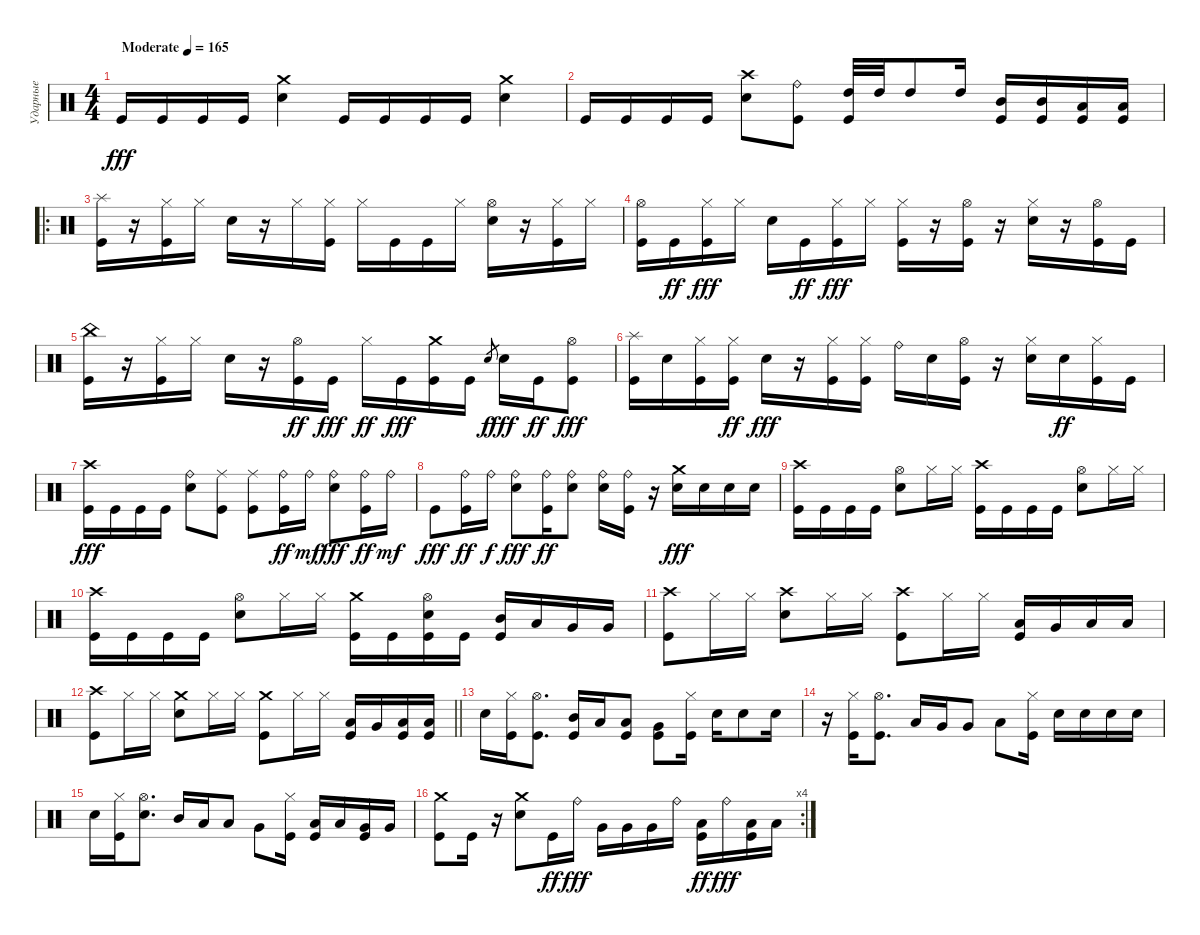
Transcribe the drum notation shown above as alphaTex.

\track ("Ударные" "Ударные") {instrument percussion}
\staff {score}
\articulation defaults
\ts (4 4)
\tempo (165 "Moderate")
\clef neutral
\ks c "Kick (hit)".16{dy fff} "Kick (hit)".16 "Kick (hit)".16 "Kick (hit)".16
("Crash medium (hit)" "Electric Snare (hit)").4 "Kick (hit)".16 "Kick (hit)".16 "Kick (hit)".16 "Kick (hit)".16 ("Crash medium (hit)" "Electric Snare (hit)").4 |
"Kick (hit)".16 "Kick (hit)".16 "Kick (hit)".16 "Kick (hit)".16 ("Crash high (hit)" "Electric Snare (hit)").8 ("Ride (bell)" "Kick (hit)").8 ("High Tom (hit)" "Kick (hit)").32 "High Tom (hit)".32 "High Tom (hit)".8 "High Tom (hit)".16 ("Mid Tom (hit)" "Kick (hit)").16 ("Mid Tom (hit)" "Kick (hit)").16 ("Low Tom (hit)" "Kick (hit)").16 ("Low Tom (hit)" "Kick (hit)").16 |
\ro
("Splash (hit)" "Kick (hit)").16 r.16 ("Hi-Hat (closed)" "Kick (hit)").16 "Hi-Hat (closed)".16 "Electric Snare (hit)".16 r.16 "Hi-Hat (closed)".16 ("Hi-Hat (closed)" "Kick (hit)").16 "Hi-Hat (closed)".16 "Kick (hit)".16 "Kick (hit)".16 "Hi-Hat (closed)".16 ("Hi-Hat (open)" "Electric Snare (hit)").16 r.16 ("Hi-Hat (closed)" "Kick (hit)").16 "Hi-Hat (closed)".16 |
("Hi-Hat (open)" "Kick (hit)").16 "Kick (hit)".16{dy ff} ("Hi-Hat (closed)" "Kick (hit)").16{dy fff} "Hi-Hat (closed)".16 "Electric Snare (hit)".16 "Kick (hit)".16{dy ff} ("Hi-Hat (closed)" "Kick (hit)").16{dy fff} "Hi-Hat (closed)".16 ("Hi-Hat (closed)" "Kick (hit)").16 r.16 ("Hi-Hat (open)" "Kick (hit)").16 r.16 ("Hi-Hat (closed)" "Electric Snare (hit)").16 r.16 ("Hi-Hat (open)" "Kick (hit)").16 "Kick (hit)".16 |
("China (hit)" "Kick (hit)").16 r.16 ("Hi-Hat (closed)" "Kick (hit)").16 "Hi-Hat (closed)".16 "Electric Snare (hit)".16 r.16 ("Hi-Hat (open)" "Kick (hit)").16{dy ff} "Kick (hit)".16{dy fff} "Hi-Hat (closed)".16{dy ff} "Kick (hit)".16{dy fff} ("Crash medium (hit)" "Kick (hit)").16 "Kick (hit)".16 "Electric Snare (hit)".8{gr dy f} "Electric Snare (hit)".16{dy fff} "Kick (hit)".16{dy ff} ("Hi-Hat (open)" "Kick (hit)").8{dy fff} |
("Splash (hit)" "Kick (hit)").16 "Electric Snare (hit)".16 ("Hi-Hat (closed)" "Kick (hit)").16 ("Hi-Hat (closed)" "Kick (hit)").16{dy ff} "Electric Snare (hit)".16{dy fff} r.16 ("Hi-Hat (closed)" "Kick (hit)").16 ("Hi-Hat (closed)" "Kick (hit)").16 "Ride (bell)".16 "Electric Snare (hit)".16 ("Hi-Hat (open)" "Kick (hit)").16 r.16 ("Hi-Hat (closed)" "Electric Snare (hit)").16 "Electric Snare (hit)".16{dy ff} ("Hi-Hat (closed)" "Kick (hit)").16 "Kick (hit)".16 |
("Crash high (hit)" "Kick (hit)").16{dy fff} "Kick (hit)".16 "Kick (hit)".16 "Kick (hit)".16 ("Ride (bell)" "Electric Snare (hit)").8 ("Ride (middle)" "Kick (hit)").8 ("Ride (middle)" "Kick (hit)").8 ("Ride (bell)" "Kick (hit)").16{dy ff} "Ride (bell)".16{dy mf} ("Ride (bell)" "Electric Snare (hit)").8{dy fff} ("Ride (bell)" "Kick (hit)").16{dy ff} "Ride (bell)".16{dy mf} |
"Kick (hit)".8{dy fff} ("Ride (bell)" "Kick (hit)").16{dy ff} "Ride (bell)".16{dy f} ("Ride (bell)" "Electric Snare (hit)").8{dy fff} ("Ride (bell)" "Kick (hit)").16{dy ff} ("Ride (bell)" "Electric Snare (hit)").8 ("Ride (bell)" "Electric Snare (hit)").16 ("Ride (bell)" "Kick (hit)").16 r.16 ("Crash medium (hit)" "Electric Snare (hit)").16{dy fff} "Electric Snare (hit)".16 "Electric Snare (hit)".16 "Electric Snare (hit)".16 |
("Crash high (hit)" "Kick (hit)").16 "Kick (hit)".16 "Kick (hit)".16 "Kick (hit)".16 ("Hi-Hat (open)" "Electric Snare (hit)").8 "Hi-Hat (closed)".16 "Hi-Hat (closed)".16 ("Crash high (hit)" "Kick (hit)").16 "Kick (hit)".16 "Kick (hit)".16 "Kick (hit)".16 ("Hi-Hat (open)" "Electric Snare (hit)").8 "Hi-Hat (closed)".16 "Hi-Hat (closed)".16 |
("Crash high (hit)" "Kick (hit)").16 "Kick (hit)".16 "Kick (hit)".16 "Kick (hit)".16 ("Hi-Hat (open)" "Electric Snare (hit)").8 "Hi-Hat (closed)".16 "Hi-Hat (closed)".16 ("Crash medium (hit)" "Kick (hit)").16 "Kick (hit)".16 ("Hi-Hat (open)" "Electric Snare (hit)" "Kick (hit)").16 "Kick (hit)".16 ("Mid Tom (hit)" "Kick (hit)").16 "Low Tom (hit)".16 "Very Low Tom (hit)".16 "Very Low Tom (hit)".16 |
("Crash high (hit)" "Kick (hit)").8 "Hi-Hat (closed)".16 "Hi-Hat (closed)".16 ("Crash high (hit)" "Electric Snare (hit)").8 "Hi-Hat (closed)".16 "Hi-Hat (closed)".16 ("Crash high (hit)" "Kick (hit)").8 "Hi-Hat (closed)".16 "Hi-Hat (closed)".16 ("Low Tom (hit)" "Kick (hit)").16 "Very Low Tom (hit)".16 "Low Floor Tom (hit)".16 "Low Floor Tom (hit)".16 |
\barLineRight lightlight
("Crash high (hit)" "Kick (hit)").8 "Hi-Hat (closed)".16 "Hi-Hat (closed)".16 ("Crash medium (hit)" "Electric Snare (hit)").8 "Hi-Hat (closed)".16 "Hi-Hat (closed)".16 ("Crash medium (hit)" "Kick (hit)").8 "Hi-Hat (closed)".16 "Hi-Hat (closed)".16 ("Low Floor Tom (hit)" "Kick (hit)").16 "Very Low Tom (hit)".16 ("Low Floor Tom (hit)" "Kick (hit)").16 ("Low Floor Tom (hit)" "Kick (hit)").16 |
"Electric Snare (hit)".16 ("Hi-Hat (closed)" "Kick (hit)").16 ("Hi-Hat (open)" "Kick (hit)").8{d} ("Mid Tom (hit)" "Kick (hit)").16 "Low Tom (hit)".16 ("Low Tom (hit)" "Kick (hit)").8 ("Very Low Tom (hit)" "Kick (hit)").8 ("Hi-Hat (closed)" "Kick (hit)").16 "Electric Snare (hit)".16 "Electric Snare (hit)".8 "Electric Snare (hit)".16 |
r.16 ("Hi-Hat (closed)" "Kick (hit)").16 ("Hi-Hat (open)" "Kick (hit)").8{d} "Low Tom (hit)".16 "Very Low Tom (hit)".16 "Very Low Tom (hit)".8 "Low Floor Tom (hit)".8 ("Hi-Hat (closed)" "Kick (hit)").16 "Electric Snare (hit)".16 "Electric Snare (hit)".16 "Electric Snare (hit)".16 "Electric Snare (hit)".16 |
"Electric Snare (hit)".16 ("Hi-Hat (closed)" "Kick (hit)").16 ("Hi-Hat (open)" "Electric Snare (hit)").8{d} "Mid Tom (hit)".16 "Low Tom (hit)".16 "Low Tom (hit)".8 "Very Low Tom (hit)".8 ("Hi-Hat (closed)" "Kick (hit)").16 ("Low Tom (hit)" "Kick (hit)").16 "Low Tom (hit)".16 ("Very Low Tom (hit)" "Kick (hit)").16 "Very Low Tom (hit)".16 |
\rc 4
("Crash medium (hit)" "Kick (hit)").8 "Kick (hit)".16 r.16 ("Crash medium (hit)" "Electric Snare (hit)").8 "Kick (hit)".16{dy ff} "Ride (bell)".16{dy fff} "Very Low Tom (hit)".16 "Very Low Tom (hit)".16 "Very Low Tom (hit)".16 "Ride (bell)".16 ("Low Floor Tom (hit)" "Kick (hit)").16{dy ff} "Ride (bell)".16{dy fff} ("Low Floor Tom (hit)" "Kick (hit)").16 "Low Floor Tom (hit)".16
